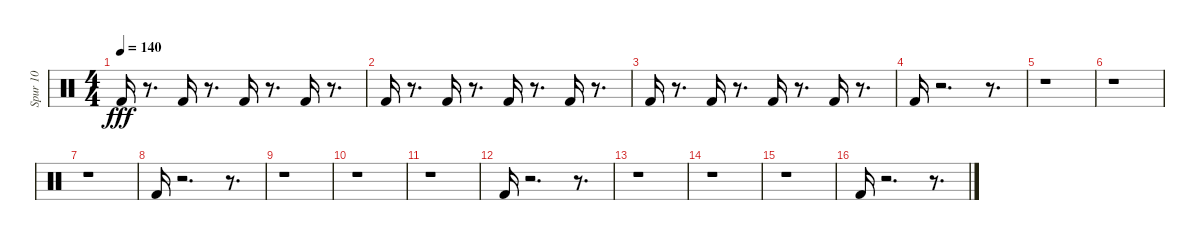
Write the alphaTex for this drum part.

\track ("Spur 10" "Spur 10") {instrument percussion}
\staff {score}
\articulation defaults
\ts (4 4)
\tempo 140
\clef neutral
\ks c "Kick (hit) 2".16{dy fff}
r.8{d} "Kick (hit) 2".16 r.8{d} "Kick (hit) 2".16 r.8{d} "Kick (hit) 2".16 r.8{d} |
"Kick (hit) 2".16 r.8{d} "Kick (hit) 2".16 r.8{d} "Kick (hit) 2".16 r.8{d} "Kick (hit) 2".16 r.8{d} |
"Kick (hit) 2".16 r.8{d} "Kick (hit) 2".16 r.8{d} "Kick (hit) 2".16 r.8{d} "Kick (hit) 2".16 r.8{d} |
"Kick (hit) 2".16 r.2{d} r.8{d} |
r.1 |
r.1 |
r.1 |
"Kick (hit) 2".16 r.2{d} r.8{d} |
r.1 |
r.1 |
r.1 |
"Kick (hit) 2".16 r.2{d} r.8{d} |
r.1 |
r.1 |
r.1 |
"Kick (hit) 2".16 r.2{d} r.8{d}
